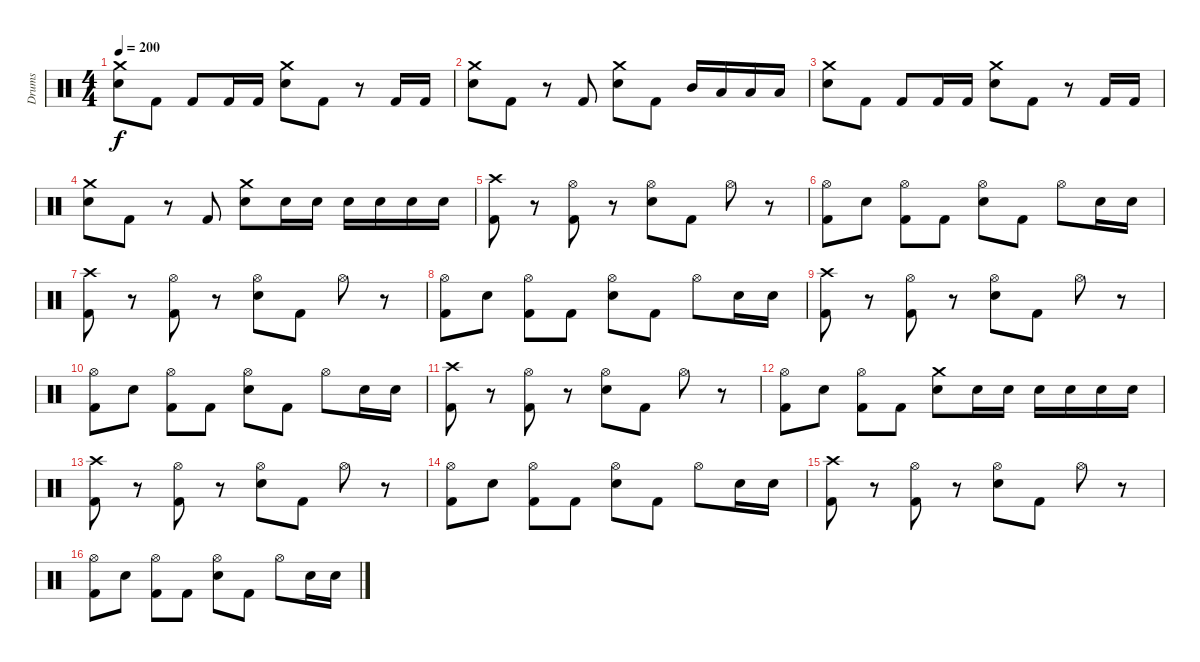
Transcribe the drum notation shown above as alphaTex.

\track ("Drums" "Drums") {instrument percussion}
\staff {score}
\articulation defaults
\ts (4 4)
\tempo 200
\clef neutral
\ks c
("Crash medium (hit)" "Electric Snare (hit)").8{dy f} "Kick (hit) 2".8 "Kick (hit) 2".8 "Kick (hit) 2".16 "Kick (hit) 2".16 ("Crash medium (hit)" "Electric Snare (hit)").8 "Kick (hit) 2".8 r.8 "Kick (hit) 2".16 "Kick (hit) 2".16 |
("Crash medium (hit)" "Electric Snare (hit)").8 "Kick (hit) 2".8 r.8 "Kick (hit) 2".8 ("Crash medium (hit)" "Electric Snare (hit)").8 "Kick (hit) 2".8 "Mid Tom (hit)".16 "Low Tom (hit)".16 "Low Floor Tom (hit)".16 "Low Floor Tom (hit)".16 |
("Crash medium (hit)" "Electric Snare (hit)").8 "Kick (hit) 2".8 "Kick (hit) 2".8 "Kick (hit) 2".16 "Kick (hit) 2".16 ("Crash medium (hit)" "Electric Snare (hit)").8 "Kick (hit) 2".8 r.8 "Kick (hit) 2".16 "Kick (hit) 2".16 |
("Crash medium (hit)" "Electric Snare (hit)").8 "Kick (hit) 2".8 r.8 "Kick (hit) 2".8 ("Crash medium (hit)" "Electric Snare (hit)").8 "Electric Snare (hit)".16 "Electric Snare (hit)".16 "Electric Snare (hit)".16 "Electric Snare (hit)".16 "Electric Snare (hit)".16 "Electric Snare (hit)".16 |
("Crash high (hit)" "Kick (hit) 2").8 r.8 ("Hi-Hat (open)" "Kick (hit) 2").8 r.8 ("Hi-Hat (open)" "Electric Snare (hit)").8 "Kick (hit) 2".8 "Hi-Hat (open)".8 r.8 |
("Hi-Hat (open)" "Kick (hit) 2").8 "Electric Snare (hit)".8 ("Hi-Hat (open)" "Kick (hit) 2").8 "Kick (hit) 2".8 ("Hi-Hat (open)" "Electric Snare (hit)").8 "Kick (hit) 2".8 "Hi-Hat (open)".8 "Electric Snare (hit)".16 "Electric Snare (hit)".16 |
("Crash high (hit)" "Kick (hit) 2").8 r.8 ("Hi-Hat (open)" "Kick (hit) 2").8 r.8 ("Hi-Hat (open)" "Electric Snare (hit)").8 "Kick (hit) 2".8 "Hi-Hat (open)".8 r.8 |
("Hi-Hat (open)" "Kick (hit) 2").8 "Electric Snare (hit)".8 ("Hi-Hat (open)" "Kick (hit) 2").8 "Kick (hit) 2".8 ("Hi-Hat (open)" "Electric Snare (hit)").8 "Kick (hit) 2".8 "Hi-Hat (open)".8 "Electric Snare (hit)".16 "Electric Snare (hit)".16 |
("Crash high (hit)" "Kick (hit) 2").8 r.8 ("Hi-Hat (open)" "Kick (hit) 2").8 r.8 ("Hi-Hat (open)" "Electric Snare (hit)").8 "Kick (hit) 2".8 "Hi-Hat (open)".8 r.8 |
("Hi-Hat (open)" "Kick (hit) 2").8 "Electric Snare (hit)".8 ("Hi-Hat (open)" "Kick (hit) 2").8 "Kick (hit) 2".8 ("Hi-Hat (open)" "Electric Snare (hit)").8 "Kick (hit) 2".8 "Hi-Hat (open)".8 "Electric Snare (hit)".16 "Electric Snare (hit)".16 |
("Crash high (hit)" "Kick (hit) 2").8 r.8 ("Hi-Hat (open)" "Kick (hit) 2").8 r.8 ("Hi-Hat (open)" "Electric Snare (hit)").8 "Kick (hit) 2".8 "Hi-Hat (open)".8 r.8 |
("Hi-Hat (open)" "Kick (hit) 2").8 "Electric Snare (hit)".8 ("Hi-Hat (open)" "Kick (hit) 2").8 "Kick (hit) 2".8 ("Crash medium (hit)" "Electric Snare (hit)").8 "Electric Snare (hit)".16 "Electric Snare (hit)".16 "Electric Snare (hit)".16 "Electric Snare (hit)".16 "Electric Snare (hit)".16 "Electric Snare (hit)".16 |
("Crash high (hit)" "Kick (hit) 2").8 r.8 ("Hi-Hat (open)" "Kick (hit) 2").8 r.8 ("Hi-Hat (open)" "Electric Snare (hit)").8 "Kick (hit) 2".8 "Hi-Hat (open)".8 r.8 |
("Hi-Hat (open)" "Kick (hit) 2").8 "Electric Snare (hit)".8 ("Hi-Hat (open)" "Kick (hit) 2").8 "Kick (hit) 2".8 ("Hi-Hat (open)" "Electric Snare (hit)").8 "Kick (hit) 2".8 "Hi-Hat (open)".8 "Electric Snare (hit)".16 "Electric Snare (hit)".16 |
("Crash high (hit)" "Kick (hit) 2").8 r.8 ("Hi-Hat (open)" "Kick (hit) 2").8 r.8 ("Hi-Hat (open)" "Electric Snare (hit)").8 "Kick (hit) 2".8 "Hi-Hat (open)".8 r.8 |
("Hi-Hat (open)" "Kick (hit) 2").8 "Electric Snare (hit)".8 ("Hi-Hat (open)" "Kick (hit) 2").8 "Kick (hit) 2".8 ("Hi-Hat (open)" "Electric Snare (hit)").8 "Kick (hit) 2".8 "Hi-Hat (open)".8 "Electric Snare (hit)".16 "Electric Snare (hit)".16
